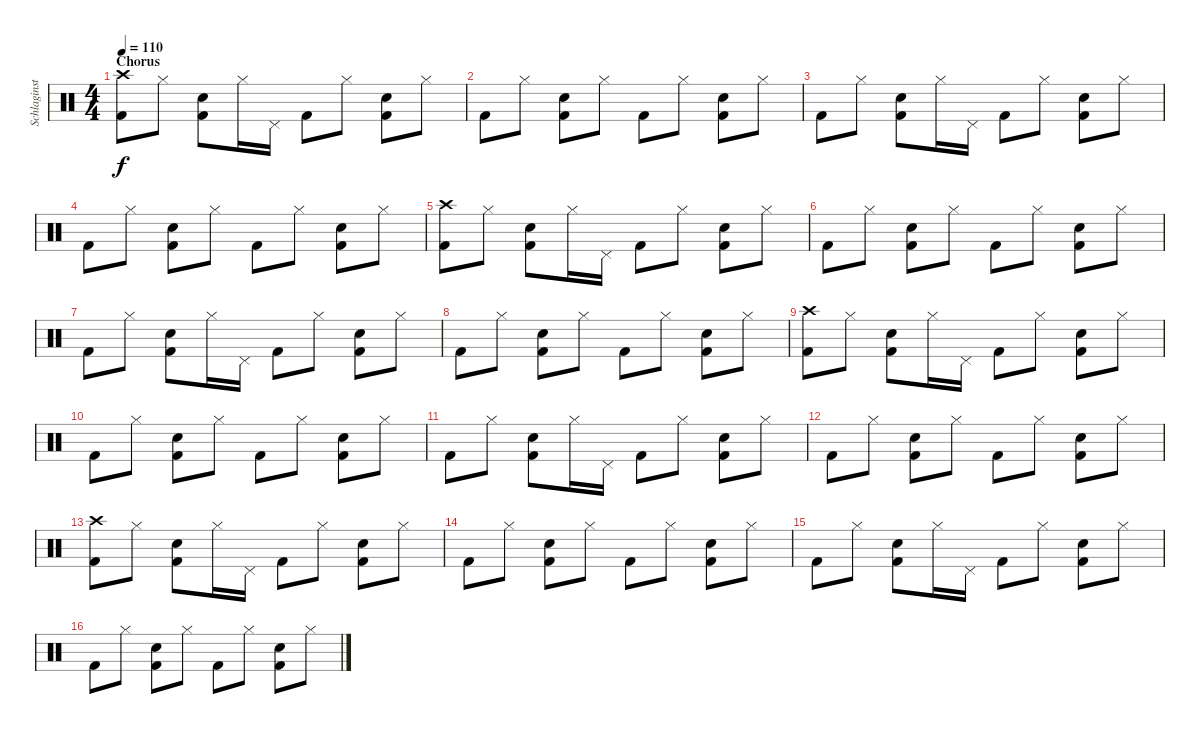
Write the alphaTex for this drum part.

\track ("Schlaginstrumente - Auswahl" "Schlaginst") {instrument percussion}
\staff {score}
\articulation defaults
\ts (4 4)
\section ("" "Chorus")
\tempo 110
\clef neutral
\ks c
("Crash high (hit)" "Kick (hit) 2").8{dy f} "Hi-Hat (closed)".8 ("Snare (hit) 2" "Kick (hit) 2").8 "Hi-Hat (closed)".16 "Pedal Hi-Hat (hit)".16 "Kick (hit) 2".8 "Hi-Hat (closed)".8 ("Snare (hit) 2" "Kick (hit) 2").8 "Hi-Hat (closed)".8 |
"Kick (hit) 2".8 "Hi-Hat (closed)".8 ("Snare (hit) 2" "Kick (hit) 2").8 "Hi-Hat (closed)".8 "Kick (hit) 2".8 "Hi-Hat (closed)".8 ("Snare (hit) 2" "Kick (hit) 2").8 "Hi-Hat (closed)".8 |
"Kick (hit) 2".8 "Hi-Hat (closed)".8 ("Snare (hit) 2" "Kick (hit) 2").8 "Hi-Hat (closed)".16 "Pedal Hi-Hat (hit)".16 "Kick (hit) 2".8 "Hi-Hat (closed)".8 ("Snare (hit) 2" "Kick (hit) 2").8 "Hi-Hat (closed)".8 |
"Kick (hit) 2".8 "Hi-Hat (closed)".8 ("Snare (hit) 2" "Kick (hit) 2").8 "Hi-Hat (closed)".8 "Kick (hit) 2".8 "Hi-Hat (closed)".8 ("Snare (hit) 2" "Kick (hit) 2").8 "Hi-Hat (closed)".8 |
("Crash high (hit)" "Kick (hit) 2").8 "Hi-Hat (closed)".8 ("Snare (hit) 2" "Kick (hit) 2").8 "Hi-Hat (closed)".16 "Pedal Hi-Hat (hit)".16 "Kick (hit) 2".8 "Hi-Hat (closed)".8 ("Snare (hit) 2" "Kick (hit) 2").8 "Hi-Hat (closed)".8 |
"Kick (hit) 2".8 "Hi-Hat (closed)".8 ("Snare (hit) 2" "Kick (hit) 2").8 "Hi-Hat (closed)".8 "Kick (hit) 2".8 "Hi-Hat (closed)".8 ("Snare (hit) 2" "Kick (hit) 2").8 "Hi-Hat (closed)".8 |
"Kick (hit) 2".8 "Hi-Hat (closed)".8 ("Snare (hit) 2" "Kick (hit) 2").8 "Hi-Hat (closed)".16 "Pedal Hi-Hat (hit)".16 "Kick (hit) 2".8 "Hi-Hat (closed)".8 ("Snare (hit) 2" "Kick (hit) 2").8 "Hi-Hat (closed)".8 |
"Kick (hit) 2".8 "Hi-Hat (closed)".8 ("Snare (hit) 2" "Kick (hit) 2").8 "Hi-Hat (closed)".8 "Kick (hit) 2".8 "Hi-Hat (closed)".8 ("Snare (hit) 2" "Kick (hit) 2").8 "Hi-Hat (closed)".8 |
("Crash high (hit)" "Kick (hit) 2").8 "Hi-Hat (closed)".8 ("Snare (hit) 2" "Kick (hit) 2").8 "Hi-Hat (closed)".16 "Pedal Hi-Hat (hit)".16 "Kick (hit) 2".8 "Hi-Hat (closed)".8 ("Snare (hit) 2" "Kick (hit) 2").8 "Hi-Hat (closed)".8 |
"Kick (hit) 2".8 "Hi-Hat (closed)".8 ("Snare (hit) 2" "Kick (hit) 2").8 "Hi-Hat (closed)".8 "Kick (hit) 2".8 "Hi-Hat (closed)".8 ("Snare (hit) 2" "Kick (hit) 2").8 "Hi-Hat (closed)".8 |
"Kick (hit) 2".8 "Hi-Hat (closed)".8 ("Snare (hit) 2" "Kick (hit) 2").8 "Hi-Hat (closed)".16 "Pedal Hi-Hat (hit)".16 "Kick (hit) 2".8 "Hi-Hat (closed)".8 ("Snare (hit) 2" "Kick (hit) 2").8 "Hi-Hat (closed)".8 |
"Kick (hit) 2".8 "Hi-Hat (closed)".8 ("Snare (hit) 2" "Kick (hit) 2").8 "Hi-Hat (closed)".8 "Kick (hit) 2".8 "Hi-Hat (closed)".8 ("Snare (hit) 2" "Kick (hit) 2").8 "Hi-Hat (closed)".8 |
("Crash high (hit)" "Kick (hit) 2").8 "Hi-Hat (closed)".8 ("Snare (hit) 2" "Kick (hit) 2").8 "Hi-Hat (closed)".16 "Pedal Hi-Hat (hit)".16 "Kick (hit) 2".8 "Hi-Hat (closed)".8 ("Snare (hit) 2" "Kick (hit) 2").8 "Hi-Hat (closed)".8 |
"Kick (hit) 2".8 "Hi-Hat (closed)".8 ("Snare (hit) 2" "Kick (hit) 2").8 "Hi-Hat (closed)".8 "Kick (hit) 2".8 "Hi-Hat (closed)".8 ("Snare (hit) 2" "Kick (hit) 2").8 "Hi-Hat (closed)".8 |
"Kick (hit) 2".8 "Hi-Hat (closed)".8 ("Snare (hit) 2" "Kick (hit) 2").8 "Hi-Hat (closed)".16 "Pedal Hi-Hat (hit)".16 "Kick (hit) 2".8 "Hi-Hat (closed)".8 ("Snare (hit) 2" "Kick (hit) 2").8 "Hi-Hat (closed)".8 |
"Kick (hit) 2".8 "Hi-Hat (closed)".8 ("Snare (hit) 2" "Kick (hit) 2").8 "Hi-Hat (closed)".8 "Kick (hit) 2".8 "Hi-Hat (closed)".8 ("Snare (hit) 2" "Kick (hit) 2").8 "Hi-Hat (closed)".8
